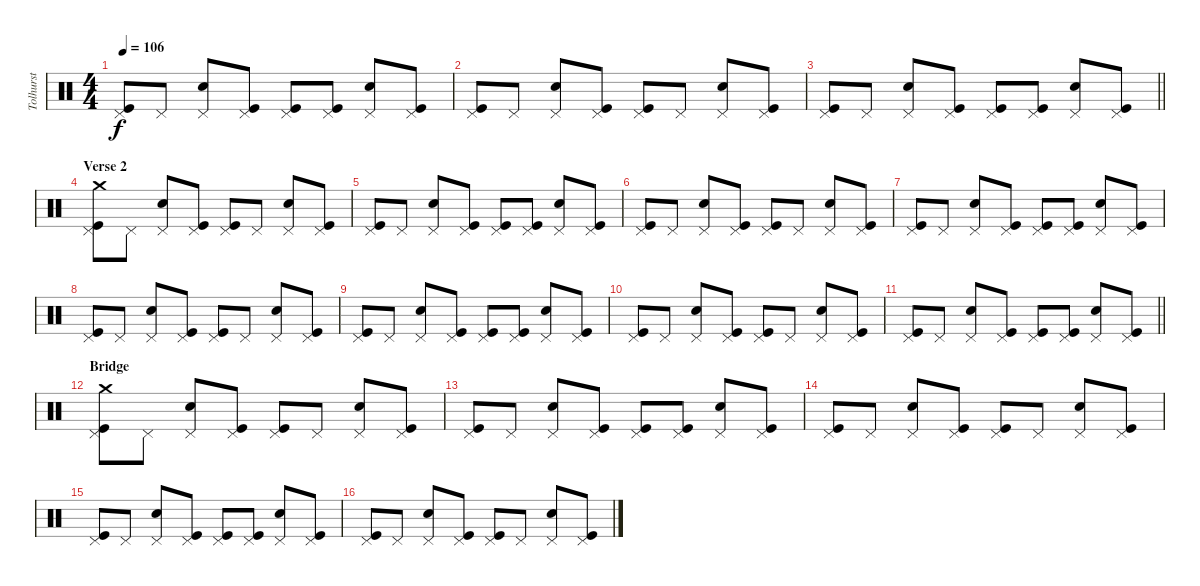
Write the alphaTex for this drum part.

\track ("Tolhurst" "Tolhurst") {instrument percussion}
\staff {score}
\articulation defaults
\ts (4 4)
\tempo 106
\clef neutral
\ks c
("Pedal Hi-Hat (hit)" "Kick (hit)").8{dy f} "Pedal Hi-Hat (hit)".8 ("Pedal Hi-Hat (hit)" "Snare (hit) 2").8 ("Pedal Hi-Hat (hit)" "Kick (hit)").8 ("Pedal Hi-Hat (hit)" "Kick (hit)").8 ("Pedal Hi-Hat (hit)" "Kick (hit)").8 ("Pedal Hi-Hat (hit)" "Snare (hit) 2").8 ("Pedal Hi-Hat (hit)" "Kick (hit)").8 |
("Pedal Hi-Hat (hit)" "Kick (hit)").8 "Pedal Hi-Hat (hit)".8 ("Pedal Hi-Hat (hit)" "Snare (hit) 2").8 ("Pedal Hi-Hat (hit)" "Kick (hit)").8 ("Pedal Hi-Hat (hit)" "Kick (hit)").8 "Pedal Hi-Hat (hit)".8 ("Pedal Hi-Hat (hit)" "Snare (hit) 2").8 ("Pedal Hi-Hat (hit)" "Kick (hit)").8 |
\barLineRight lightlight
("Pedal Hi-Hat (hit)" "Kick (hit)").8 "Pedal Hi-Hat (hit)".8 ("Pedal Hi-Hat (hit)" "Snare (hit) 2").8 ("Pedal Hi-Hat (hit)" "Kick (hit)").8 ("Pedal Hi-Hat (hit)" "Kick (hit)").8 ("Pedal Hi-Hat (hit)" "Kick (hit)").8 ("Pedal Hi-Hat (hit)" "Snare (hit) 2").8 ("Pedal Hi-Hat (hit)" "Kick (hit)").8 |
\section ("" "Verse 2")
("Crash medium (hit)" "Pedal Hi-Hat (hit)" "Kick (hit)").8 "Pedal Hi-Hat (hit)".8 ("Pedal Hi-Hat (hit)" "Snare (hit) 2").8 ("Pedal Hi-Hat (hit)" "Kick (hit)").8 ("Pedal Hi-Hat (hit)" "Kick (hit)").8 "Pedal Hi-Hat (hit)".8 ("Pedal Hi-Hat (hit)" "Snare (hit) 2").8 ("Pedal Hi-Hat (hit)" "Kick (hit)").8 |
("Pedal Hi-Hat (hit)" "Kick (hit)").8 "Pedal Hi-Hat (hit)".8 ("Pedal Hi-Hat (hit)" "Snare (hit) 2").8 ("Pedal Hi-Hat (hit)" "Kick (hit)").8 ("Pedal Hi-Hat (hit)" "Kick (hit)").8 ("Pedal Hi-Hat (hit)" "Kick (hit)").8 ("Pedal Hi-Hat (hit)" "Snare (hit) 2").8 ("Pedal Hi-Hat (hit)" "Kick (hit)").8 |
("Pedal Hi-Hat (hit)" "Kick (hit)").8 "Pedal Hi-Hat (hit)".8 ("Pedal Hi-Hat (hit)" "Snare (hit) 2").8 ("Pedal Hi-Hat (hit)" "Kick (hit)").8 ("Pedal Hi-Hat (hit)" "Kick (hit)").8 "Pedal Hi-Hat (hit)".8 ("Pedal Hi-Hat (hit)" "Snare (hit) 2").8 ("Pedal Hi-Hat (hit)" "Kick (hit)").8 |
("Pedal Hi-Hat (hit)" "Kick (hit)").8 "Pedal Hi-Hat (hit)".8 ("Pedal Hi-Hat (hit)" "Snare (hit) 2").8 ("Pedal Hi-Hat (hit)" "Kick (hit)").8 ("Pedal Hi-Hat (hit)" "Kick (hit)").8 ("Pedal Hi-Hat (hit)" "Kick (hit)").8 ("Pedal Hi-Hat (hit)" "Snare (hit) 2").8 ("Pedal Hi-Hat (hit)" "Kick (hit)").8 |
("Pedal Hi-Hat (hit)" "Kick (hit)").8 "Pedal Hi-Hat (hit)".8 ("Pedal Hi-Hat (hit)" "Snare (hit) 2").8 ("Pedal Hi-Hat (hit)" "Kick (hit)").8 ("Pedal Hi-Hat (hit)" "Kick (hit)").8 "Pedal Hi-Hat (hit)".8 ("Pedal Hi-Hat (hit)" "Snare (hit) 2").8 ("Pedal Hi-Hat (hit)" "Kick (hit)").8 |
("Pedal Hi-Hat (hit)" "Kick (hit)").8 "Pedal Hi-Hat (hit)".8 ("Pedal Hi-Hat (hit)" "Snare (hit) 2").8 ("Pedal Hi-Hat (hit)" "Kick (hit)").8 ("Pedal Hi-Hat (hit)" "Kick (hit)").8 ("Pedal Hi-Hat (hit)" "Kick (hit)").8 ("Pedal Hi-Hat (hit)" "Snare (hit) 2").8 ("Pedal Hi-Hat (hit)" "Kick (hit)").8 |
("Pedal Hi-Hat (hit)" "Kick (hit)").8 "Pedal Hi-Hat (hit)".8 ("Pedal Hi-Hat (hit)" "Snare (hit) 2").8 ("Pedal Hi-Hat (hit)" "Kick (hit)").8 ("Pedal Hi-Hat (hit)" "Kick (hit)").8 "Pedal Hi-Hat (hit)".8 ("Pedal Hi-Hat (hit)" "Snare (hit) 2").8 ("Pedal Hi-Hat (hit)" "Kick (hit)").8 |
\barLineRight lightlight
("Pedal Hi-Hat (hit)" "Kick (hit)").8 "Pedal Hi-Hat (hit)".8 ("Pedal Hi-Hat (hit)" "Snare (hit) 2").8 ("Pedal Hi-Hat (hit)" "Kick (hit)").8 ("Pedal Hi-Hat (hit)" "Kick (hit)").8 ("Pedal Hi-Hat (hit)" "Kick (hit)").8 ("Pedal Hi-Hat (hit)" "Snare (hit) 2").8 ("Pedal Hi-Hat (hit)" "Kick (hit)").8 |
\section ("" "Bridge")
("Crash medium (hit)" "Pedal Hi-Hat (hit)" "Kick (hit)").8 "Pedal Hi-Hat (hit)".8 ("Pedal Hi-Hat (hit)" "Snare (hit) 2").8 ("Pedal Hi-Hat (hit)" "Kick (hit)").8 ("Pedal Hi-Hat (hit)" "Kick (hit)").8 "Pedal Hi-Hat (hit)".8 ("Pedal Hi-Hat (hit)" "Snare (hit) 2").8 ("Pedal Hi-Hat (hit)" "Kick (hit)").8 |
("Pedal Hi-Hat (hit)" "Kick (hit)").8 "Pedal Hi-Hat (hit)".8 ("Pedal Hi-Hat (hit)" "Snare (hit) 2").8 ("Pedal Hi-Hat (hit)" "Kick (hit)").8 ("Pedal Hi-Hat (hit)" "Kick (hit)").8 ("Pedal Hi-Hat (hit)" "Kick (hit)").8 ("Pedal Hi-Hat (hit)" "Snare (hit) 2").8 ("Pedal Hi-Hat (hit)" "Kick (hit)").8 |
("Pedal Hi-Hat (hit)" "Kick (hit)").8 "Pedal Hi-Hat (hit)".8 ("Pedal Hi-Hat (hit)" "Snare (hit) 2").8 ("Pedal Hi-Hat (hit)" "Kick (hit)").8 ("Pedal Hi-Hat (hit)" "Kick (hit)").8 "Pedal Hi-Hat (hit)".8 ("Pedal Hi-Hat (hit)" "Snare (hit) 2").8 ("Pedal Hi-Hat (hit)" "Kick (hit)").8 |
("Pedal Hi-Hat (hit)" "Kick (hit)").8 "Pedal Hi-Hat (hit)".8 ("Pedal Hi-Hat (hit)" "Snare (hit) 2").8 ("Pedal Hi-Hat (hit)" "Kick (hit)").8 ("Pedal Hi-Hat (hit)" "Kick (hit)").8 ("Pedal Hi-Hat (hit)" "Kick (hit)").8 ("Pedal Hi-Hat (hit)" "Snare (hit) 2").8 ("Pedal Hi-Hat (hit)" "Kick (hit)").8 |
("Pedal Hi-Hat (hit)" "Kick (hit)").8 "Pedal Hi-Hat (hit)".8 ("Pedal Hi-Hat (hit)" "Snare (hit) 2").8 ("Pedal Hi-Hat (hit)" "Kick (hit)").8 ("Pedal Hi-Hat (hit)" "Kick (hit)").8 "Pedal Hi-Hat (hit)".8 ("Pedal Hi-Hat (hit)" "Snare (hit) 2").8 ("Pedal Hi-Hat (hit)" "Kick (hit)").8
